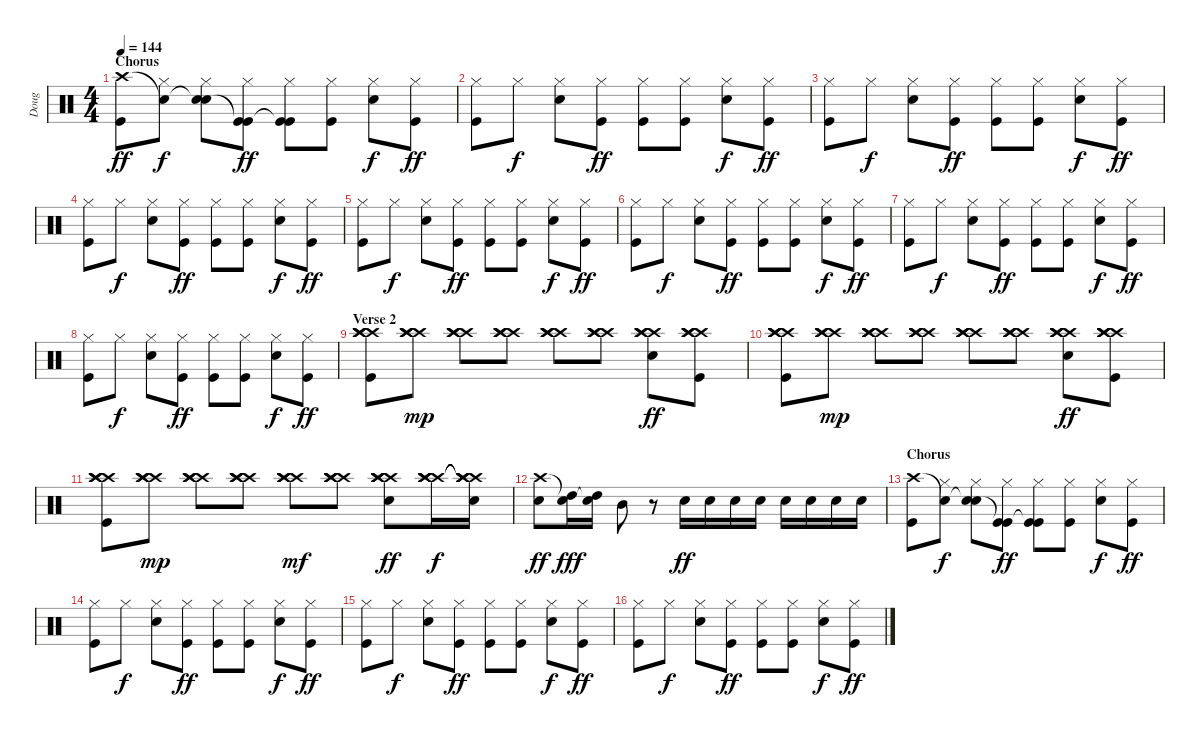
\track ("Doug" "Doug") {instrument percussion}
\staff {score}
\articulation defaults
\ts (4 4)
\section ("" "Chorus")
\tempo 144
\clef neutral
\ks c
("Crash high (hit)" "Kick (hit)").8{dy ff} ("Snare (hit)"{t} "Hi-Hat (closed)").8{dy f} ("Electric Snare (hit)"{t} "Hi-Hat (closed)" "Electric Snare (hit)").8 ("Kick (hit)"{t} "Hi-Hat (closed)" "Kick (hit)").8{dy ff} ("Kick (hit)"{t} "Hi-Hat (closed)" "Kick (hit)").8 ("Hi-Hat (closed)" "Kick (hit)").8 ("Hi-Hat (closed)" "Electric Snare (hit)").8{dy f} ("Hi-Hat (closed)" "Kick (hit)").8{dy ff} |
("Hi-Hat (closed)" "Kick (hit)").8 "Hi-Hat (closed)".8{dy f} ("Hi-Hat (closed)" "Electric Snare (hit)").8 ("Hi-Hat (closed)" "Kick (hit)").8{dy ff} ("Hi-Hat (closed)" "Kick (hit)").8 ("Hi-Hat (closed)" "Kick (hit)").8 ("Hi-Hat (closed)" "Electric Snare (hit)").8{dy f} ("Hi-Hat (closed)" "Kick (hit)").8{dy ff} |
("Hi-Hat (closed)" "Kick (hit)").8 "Hi-Hat (closed)".8{dy f} ("Hi-Hat (closed)" "Electric Snare (hit)").8 ("Hi-Hat (closed)" "Kick (hit)").8{dy ff} ("Hi-Hat (closed)" "Kick (hit)").8 ("Hi-Hat (closed)" "Kick (hit)").8 ("Hi-Hat (closed)" "Electric Snare (hit)").8{dy f} ("Hi-Hat (closed)" "Kick (hit)").8{dy ff} |
("Hi-Hat (closed)" "Kick (hit)").8 "Hi-Hat (closed)".8{dy f} ("Hi-Hat (closed)" "Electric Snare (hit)").8 ("Hi-Hat (closed)" "Kick (hit)").8{dy ff} ("Hi-Hat (closed)" "Kick (hit)").8 ("Hi-Hat (closed)" "Kick (hit)").8 ("Hi-Hat (closed)" "Electric Snare (hit)").8{dy f} ("Hi-Hat (closed)" "Kick (hit)").8{dy ff} |
("Hi-Hat (closed)" "Kick (hit)").8 "Hi-Hat (closed)".8{dy f} ("Hi-Hat (closed)" "Electric Snare (hit)").8 ("Hi-Hat (closed)" "Kick (hit)").8{dy ff} ("Hi-Hat (closed)" "Kick (hit)").8 ("Hi-Hat (closed)" "Kick (hit)").8 ("Hi-Hat (closed)" "Electric Snare (hit)").8{dy f} ("Hi-Hat (closed)" "Kick (hit)").8{dy ff} |
("Hi-Hat (closed)" "Kick (hit)").8 "Hi-Hat (closed)".8{dy f} ("Hi-Hat (closed)" "Electric Snare (hit)").8 ("Hi-Hat (closed)" "Kick (hit)").8{dy ff} ("Hi-Hat (closed)" "Kick (hit)").8 ("Hi-Hat (closed)" "Kick (hit)").8 ("Hi-Hat (closed)" "Electric Snare (hit)").8{dy f} ("Hi-Hat (closed)" "Kick (hit)").8{dy ff} |
("Hi-Hat (closed)" "Kick (hit)").8 "Hi-Hat (closed)".8{dy f} ("Hi-Hat (closed)" "Electric Snare (hit)").8 ("Hi-Hat (closed)" "Kick (hit)").8{dy ff} ("Hi-Hat (closed)" "Kick (hit)").8 ("Hi-Hat (closed)" "Kick (hit)").8 ("Hi-Hat (closed)" "Electric Snare (hit)").8{dy f} ("Hi-Hat (closed)" "Kick (hit)").8{dy ff} |
("Hi-Hat (closed)" "Kick (hit)").8 "Hi-Hat (closed)".8{dy f} ("Hi-Hat (closed)" "Electric Snare (hit)").8 ("Hi-Hat (closed)" "Kick (hit)").8{dy ff} ("Hi-Hat (closed)" "Kick (hit)").8 ("Hi-Hat (closed)" "Kick (hit)").8 ("Hi-Hat (closed)" "Electric Snare (hit)").8{dy f} ("Hi-Hat (closed)" "Kick (hit)").8{dy ff} |
\section ("" "Verse 2")
("Crash high (hit)" "Crash high (hit)" "Crash high (hit)" "Crash high (hit)" "Kick (hit)").8 ("Crash high (hit)" "Crash high (hit)" "Crash high (hit)" "Crash high (hit)").8{dy mp} ("Crash high (hit)" "Crash high (hit)" "Crash high (hit)" "Crash high (hit)").8 ("Crash high (hit)" "Crash high (hit)" "Crash high (hit)" "Crash high (hit)").8 ("Crash high (hit)" "Crash high (hit)" "Crash high (hit)" "Crash high (hit)").8 ("Crash high (hit)" "Crash high (hit)" "Crash high (hit)" "Crash high (hit)").8 ("Crash high (hit)" "Crash high (hit)" "Crash high (hit)" "Crash high (hit)" "Electric Snare (hit)").8{dy ff} ("Crash high (hit)" "Crash high (hit)" "Crash high (hit)" "Crash high (hit)" "Kick (hit)").8 |
("Crash high (hit)" "Crash high (hit)" "Crash high (hit)" "Crash high (hit)" "Kick (hit)").8 ("Crash high (hit)" "Crash high (hit)" "Crash high (hit)" "Crash high (hit)").8{dy mp} ("Crash high (hit)" "Crash high (hit)" "Crash high (hit)" "Crash high (hit)").8 ("Crash high (hit)" "Crash high (hit)" "Crash high (hit)" "Crash high (hit)").8 ("Crash high (hit)" "Crash high (hit)" "Crash high (hit)" "Crash high (hit)").8 ("Crash high (hit)" "Crash high (hit)" "Crash high (hit)" "Crash high (hit)").8 ("Crash high (hit)" "Crash high (hit)" "Crash high (hit)" "Crash high (hit)" "Electric Snare (hit)").8{dy ff} ("Crash high (hit)" "Crash high (hit)" "Crash high (hit)" "Crash high (hit)" "Kick (hit)").8 |
("Crash high (hit)" "Crash high (hit)" "Crash high (hit)" "Crash high (hit)" "Kick (hit)").8 ("Crash high (hit)" "Crash high (hit)" "Crash high (hit)" "Crash high (hit)").8{dy mp} ("Crash high (hit)" "Crash high (hit)" "Crash high (hit)" "Crash high (hit)").8 ("Crash high (hit)" "Crash high (hit)" "Crash high (hit)" "Crash high (hit)").8 ("Crash high (hit)" "Crash high (hit)" "Crash high (hit)" "Crash high (hit)").8{dy mf} ("Crash high (hit)" "Crash high (hit)" "Crash high (hit)" "Crash high (hit)").8 ("Crash high (hit)" "Crash high (hit)" "Crash high (hit)" "Crash high (hit)" "Electric Snare (hit)").8{dy ff} ("Crash high (hit)" "Crash high (hit)" "Crash high (hit)" "Crash high (hit)").16{dy f} ("Crash high (hit)"{t} "Crash high (hit)"{t} "Crash high (hit)"{t} "Crash high (hit)"{t} "Electric Snare (hit)").16 |
("Crash high (hit)" "Electric Snare (hit)").8{dy ff} ("Snare (hit)"{t} "High Tom (hit)").16{dy fff} ("Snare (hit)"{t} "High Tom (hit)").16 "Mid Tom (hit)".8 r.8 "Electric Snare (hit)".16{dy ff} "Electric Snare (hit)".16 "Electric Snare (hit)".16 "Electric Snare (hit)".16 "Electric Snare (hit)".16 "Electric Snare (hit)".16 "Electric Snare (hit)".16 "Electric Snare (hit)".16 |
\section ("" "Chorus")
("Crash high (hit)" "Kick (hit)").8 ("Snare (hit)"{t} "Hi-Hat (closed)").8{dy f} ("Electric Snare (hit)"{t} "Hi-Hat (closed)" "Electric Snare (hit)").8 ("Kick (hit)"{t} "Hi-Hat (closed)" "Kick (hit)").8{dy ff} ("Kick (hit)"{t} "Hi-Hat (closed)" "Kick (hit)").8 ("Hi-Hat (closed)" "Kick (hit)").8 ("Hi-Hat (closed)" "Electric Snare (hit)").8{dy f} ("Hi-Hat (closed)" "Kick (hit)").8{dy ff} |
("Hi-Hat (closed)" "Kick (hit)").8 "Hi-Hat (closed)".8{dy f} ("Hi-Hat (closed)" "Electric Snare (hit)").8 ("Hi-Hat (closed)" "Kick (hit)").8{dy ff} ("Hi-Hat (closed)" "Kick (hit)").8 ("Hi-Hat (closed)" "Kick (hit)").8 ("Hi-Hat (closed)" "Electric Snare (hit)").8{dy f} ("Hi-Hat (closed)" "Kick (hit)").8{dy ff} |
("Hi-Hat (closed)" "Kick (hit)").8 "Hi-Hat (closed)".8{dy f} ("Hi-Hat (closed)" "Electric Snare (hit)").8 ("Hi-Hat (closed)" "Kick (hit)").8{dy ff} ("Hi-Hat (closed)" "Kick (hit)").8 ("Hi-Hat (closed)" "Kick (hit)").8 ("Hi-Hat (closed)" "Electric Snare (hit)").8{dy f} ("Hi-Hat (closed)" "Kick (hit)").8{dy ff} |
("Hi-Hat (closed)" "Kick (hit)").8 "Hi-Hat (closed)".8{dy f} ("Hi-Hat (closed)" "Electric Snare (hit)").8 ("Hi-Hat (closed)" "Kick (hit)").8{dy ff} ("Hi-Hat (closed)" "Kick (hit)").8 ("Hi-Hat (closed)" "Kick (hit)").8 ("Hi-Hat (closed)" "Electric Snare (hit)").8{dy f} ("Hi-Hat (closed)" "Kick (hit)").8{dy ff}
